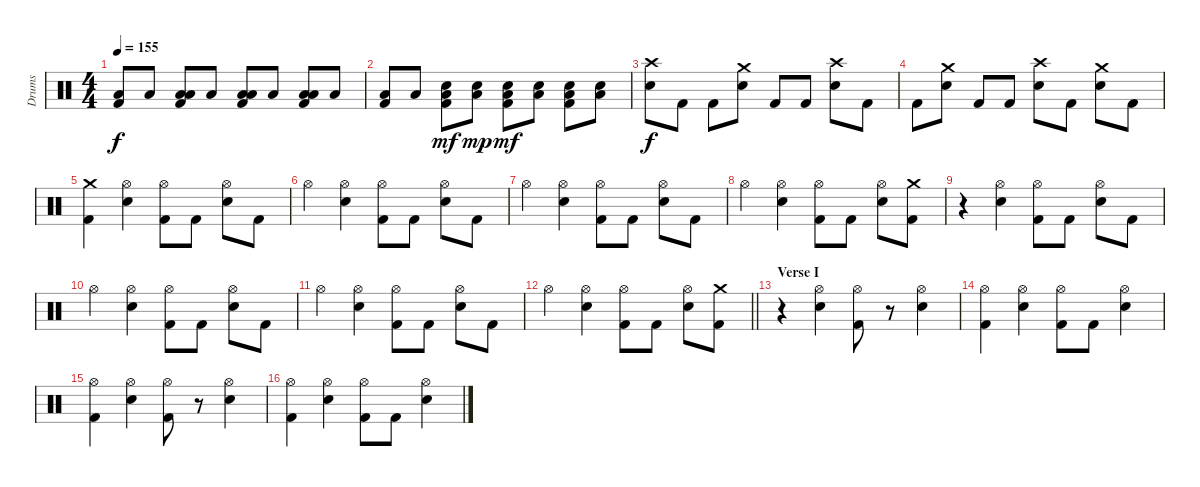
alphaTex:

\track ("Drums" "Drums") {instrument percussion}
\staff {score}
\articulation defaults
\ts (4 4)
\tempo 155
\clef neutral
\ks c
("Low Floor Tom (hit)" "Kick (hit) 2").8{dy f} "Low Floor Tom (hit)".8 ("Low Floor Tom (hit)" "Kick (hit) 2" "Low Tom (hit)").8 "Low Floor Tom (hit)".8 ("Low Floor Tom (hit)" "Kick (hit) 2" "Low Tom (hit)").8 "Low Floor Tom (hit)".8 ("Low Floor Tom (hit)" "Kick (hit) 2" "Low Tom (hit)").8 "Low Floor Tom (hit)".8 |
("Low Floor Tom (hit)" "Kick (hit) 2").8 "Low Floor Tom (hit)".8 ("Low Floor Tom (hit)" "Electric Snare (hit)" "Kick (hit) 2").8{dy mf} ("Low Floor Tom (hit)" "Electric Snare (hit)").8{dy mp} ("Low Floor Tom (hit)" "Electric Snare (hit)" "Kick (hit) 2").8{dy mf} ("Low Floor Tom (hit)" "Electric Snare (hit)").8 ("Low Floor Tom (hit)" "Electric Snare (hit)" "Kick (hit) 2").8 ("Low Floor Tom (hit)" "Electric Snare (hit)").8 |
("Crash high (hit)" "Electric Snare (hit)").8{dy f} "Kick (hit) 2".8 "Kick (hit) 2".8 ("Crash medium (hit)" "Electric Snare (hit)").8 "Kick (hit) 2".8 "Kick (hit) 2".8 ("Crash high (hit)" "Electric Snare (hit)").8 "Kick (hit) 2".8 |
"Kick (hit) 2".8 ("Crash medium (hit)" "Electric Snare (hit)").8 "Kick (hit) 2".8 "Kick (hit) 2".8 ("Crash high (hit)" "Electric Snare (hit)").8 "Kick (hit) 2".8 ("Crash medium (hit)" "Electric Snare (hit)").8 "Kick (hit) 2".8 |
("Crash medium (hit)" "Kick (hit) 2").4 ("Hi-Hat (open)" "Electric Snare (hit)").4 ("Hi-Hat (open)" "Kick (hit) 2").8 "Kick (hit) 2".8 ("Hi-Hat (open)" "Electric Snare (hit)").8 "Kick (hit) 2".8 |
"Hi-Hat (open)".4 ("Hi-Hat (open)" "Electric Snare (hit)").4 ("Hi-Hat (open)" "Kick (hit) 2").8 "Kick (hit) 2".8 ("Hi-Hat (open)" "Electric Snare (hit)").8 "Kick (hit) 2".8 |
"Hi-Hat (open)".4 ("Hi-Hat (open)" "Electric Snare (hit)").4 ("Hi-Hat (open)" "Kick (hit) 2").8 "Kick (hit) 2".8 ("Hi-Hat (open)" "Electric Snare (hit)").8 "Kick (hit) 2".8 |
"Hi-Hat (open)".4 ("Hi-Hat (open)" "Electric Snare (hit)").4 ("Hi-Hat (open)" "Kick (hit) 2").8 "Kick (hit) 2".8 ("Hi-Hat (open)" "Electric Snare (hit)").8 ("Crash medium (hit)" "Kick (hit) 2").8 |
r.4 ("Hi-Hat (open)" "Electric Snare (hit)").4 ("Hi-Hat (open)" "Kick (hit) 2").8 "Kick (hit) 2".8 ("Hi-Hat (open)" "Electric Snare (hit)").8 "Kick (hit) 2".8 |
"Hi-Hat (open)".4 ("Hi-Hat (open)" "Electric Snare (hit)").4 ("Hi-Hat (open)" "Kick (hit) 2").8 "Kick (hit) 2".8 ("Hi-Hat (open)" "Electric Snare (hit)").8 "Kick (hit) 2".8 |
"Hi-Hat (open)".4 ("Hi-Hat (open)" "Electric Snare (hit)").4 ("Hi-Hat (open)" "Kick (hit) 2").8 "Kick (hit) 2".8 ("Hi-Hat (open)" "Electric Snare (hit)").8 "Kick (hit) 2".8 |
\barLineRight lightlight "Hi-Hat (open)".4
("Hi-Hat (open)" "Electric Snare (hit)").4 ("Hi-Hat (open)" "Kick (hit) 2").8 "Kick (hit) 2".8 ("Hi-Hat (open)" "Electric Snare (hit)").8 ("Crash medium (hit)" "Kick (hit) 2").8 |
\section ("" "Verse I")
r.4 ("Hi-Hat (open)" "Electric Snare (hit)").4 ("Hi-Hat (open)" "Kick (hit) 2").8 r.8 ("Hi-Hat (open)" "Electric Snare (hit)").4 |
("Hi-Hat (open)" "Kick (hit) 2").4 ("Hi-Hat (open)" "Electric Snare (hit)").4 ("Hi-Hat (open)" "Kick (hit) 2").8 "Kick (hit) 2".8 ("Hi-Hat (open)" "Electric Snare (hit)").4 |
("Hi-Hat (open)" "Kick (hit) 2").4 ("Hi-Hat (open)" "Electric Snare (hit)").4 ("Hi-Hat (open)" "Kick (hit) 2").8 r.8 ("Hi-Hat (open)" "Electric Snare (hit)").4 |
("Hi-Hat (open)" "Kick (hit) 2").4 ("Hi-Hat (open)" "Electric Snare (hit)").4 ("Hi-Hat (open)" "Kick (hit) 2").8 "Kick (hit) 2".8 ("Hi-Hat (open)" "Electric Snare (hit)").4
